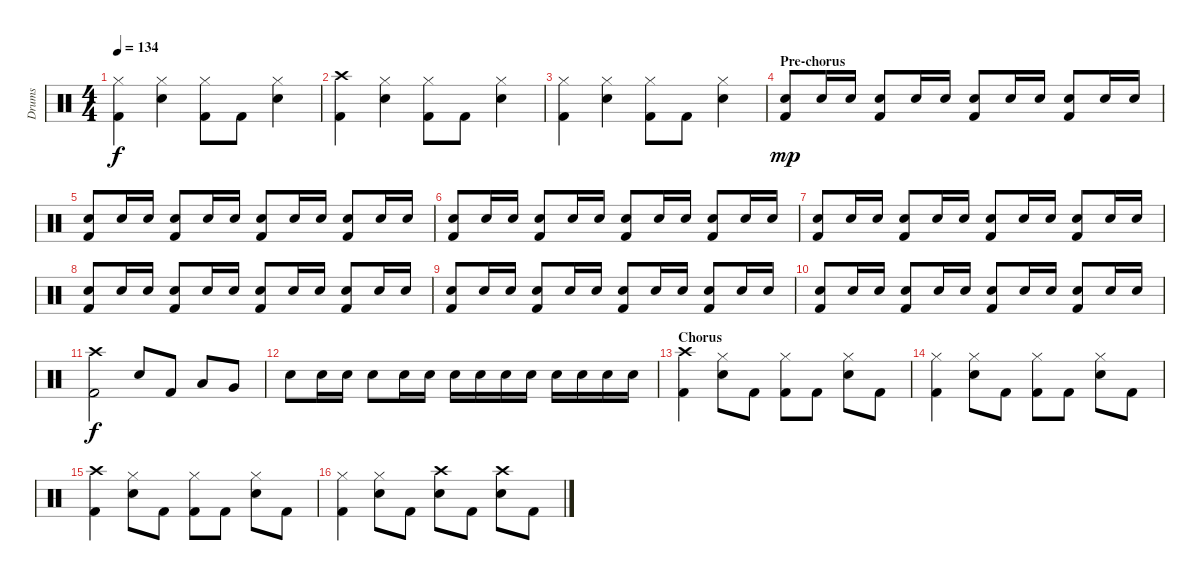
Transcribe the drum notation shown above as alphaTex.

\track ("Drums" "Drums") {instrument percussion}
\staff {score}
\articulation defaults
\ts (4 4)
\tempo 134
\clef neutral
\ks c
("Hi-Hat (closed)" "Kick (hit) 2").4{dy f} ("Hi-Hat (closed)" "Electric Snare (hit)").4 ("Hi-Hat (closed)" "Kick (hit) 2").8 "Kick (hit) 2".8 ("Hi-Hat (closed)" "Electric Snare (hit)").4 |
("Crash high (hit)" "Kick (hit) 2").4 ("Hi-Hat (closed)" "Electric Snare (hit)").4 ("Hi-Hat (closed)" "Kick (hit) 2").8 "Kick (hit) 2".8 ("Hi-Hat (closed)" "Electric Snare (hit)").4 |
("Hi-Hat (closed)" "Kick (hit) 2").4 ("Hi-Hat (closed)" "Electric Snare (hit)").4 ("Hi-Hat (closed)" "Kick (hit) 2").8 "Kick (hit) 2".8 ("Hi-Hat (closed)" "Electric Snare (hit)").4 |
\section ("" "Pre-chorus")
("Electric Snare (hit)" "Kick (hit) 2").8{dy mp} "Electric Snare (hit)".16 "Electric Snare (hit)".16 ("Electric Snare (hit)" "Kick (hit) 2").8 "Electric Snare (hit)".16 "Electric Snare (hit)".16 ("Electric Snare (hit)" "Kick (hit) 2").8 "Electric Snare (hit)".16 "Electric Snare (hit)".16 ("Electric Snare (hit)" "Kick (hit) 2").8 "Electric Snare (hit)".16 "Electric Snare (hit)".16 |
("Electric Snare (hit)" "Kick (hit) 2").8 "Electric Snare (hit)".16 "Electric Snare (hit)".16 ("Electric Snare (hit)" "Kick (hit) 2").8 "Electric Snare (hit)".16 "Electric Snare (hit)".16 ("Electric Snare (hit)" "Kick (hit) 2").8 "Electric Snare (hit)".16 "Electric Snare (hit)".16 ("Electric Snare (hit)" "Kick (hit) 2").8 "Electric Snare (hit)".16 "Electric Snare (hit)".16 |
("Electric Snare (hit)" "Kick (hit) 2").8 "Electric Snare (hit)".16 "Electric Snare (hit)".16 ("Electric Snare (hit)" "Kick (hit) 2").8 "Electric Snare (hit)".16 "Electric Snare (hit)".16 ("Electric Snare (hit)" "Kick (hit) 2").8 "Electric Snare (hit)".16 "Electric Snare (hit)".16 ("Electric Snare (hit)" "Kick (hit) 2").8 "Electric Snare (hit)".16 "Electric Snare (hit)".16 |
("Electric Snare (hit)" "Kick (hit) 2").8 "Electric Snare (hit)".16 "Electric Snare (hit)".16 ("Electric Snare (hit)" "Kick (hit) 2").8 "Electric Snare (hit)".16 "Electric Snare (hit)".16 ("Electric Snare (hit)" "Kick (hit) 2").8 "Electric Snare (hit)".16 "Electric Snare (hit)".16 ("Electric Snare (hit)" "Kick (hit) 2").8 "Electric Snare (hit)".16 "Electric Snare (hit)".16 |
("Electric Snare (hit)" "Kick (hit) 2").8 "Electric Snare (hit)".16 "Electric Snare (hit)".16 ("Electric Snare (hit)" "Kick (hit) 2").8 "Electric Snare (hit)".16 "Electric Snare (hit)".16 ("Electric Snare (hit)" "Kick (hit) 2").8 "Electric Snare (hit)".16 "Electric Snare (hit)".16 ("Electric Snare (hit)" "Kick (hit) 2").8 "Electric Snare (hit)".16 "Electric Snare (hit)".16 |
("Electric Snare (hit)" "Kick (hit) 2").8 "Electric Snare (hit)".16 "Electric Snare (hit)".16 ("Electric Snare (hit)" "Kick (hit) 2").8 "Electric Snare (hit)".16 "Electric Snare (hit)".16 ("Electric Snare (hit)" "Kick (hit) 2").8 "Electric Snare (hit)".16 "Electric Snare (hit)".16 ("Electric Snare (hit)" "Kick (hit) 2").8 "Electric Snare (hit)".16 "Electric Snare (hit)".16 |
("Electric Snare (hit)" "Kick (hit) 2").8 "Electric Snare (hit)".16 "Electric Snare (hit)".16 ("Electric Snare (hit)" "Kick (hit) 2").8 "Electric Snare (hit)".16 "Electric Snare (hit)".16 ("Electric Snare (hit)" "Kick (hit) 2").8 "Electric Snare (hit)".16 "Electric Snare (hit)".16 ("Electric Snare (hit)" "Kick (hit) 2").8 "Electric Snare (hit)".16 "Electric Snare (hit)".16 |
("Crash high (hit)" "Kick (hit) 2").2{dy f} "Electric Snare (hit)".8 "Kick (hit) 2".8 "Low Tom (hit)".8 "Very Low Tom (hit)".8 |
"Electric Snare (hit)".8 "Electric Snare (hit)".16 "Electric Snare (hit)".16 "Electric Snare (hit)".8 "Electric Snare (hit)".16 "Electric Snare (hit)".16 "Electric Snare (hit)".16 "Electric Snare (hit)".16 "Electric Snare (hit)".16 "Electric Snare (hit)".16 "Electric Snare (hit)".16 "Electric Snare (hit)".16 "Electric Snare (hit)".16 "Electric Snare (hit)".16 |
\section ("" "Chorus")
("Crash high (hit)" "Kick (hit) 2").4 ("Hi-Hat (closed)" "Electric Snare (hit)").8 "Kick (hit) 2".8 ("Hi-Hat (closed)" "Kick (hit) 2").8 "Kick (hit) 2".8 ("Hi-Hat (closed)" "Electric Snare (hit)").8 "Kick (hit) 2".8 |
("Hi-Hat (closed)" "Kick (hit) 2").4 ("Hi-Hat (closed)" "Electric Snare (hit)").8 "Kick (hit) 2".8 ("Hi-Hat (closed)" "Kick (hit) 2").8 "Kick (hit) 2".8 ("Hi-Hat (closed)" "Electric Snare (hit)").8 "Kick (hit) 2".8 |
("Crash high (hit)" "Kick (hit) 2").4 ("Hi-Hat (closed)" "Electric Snare (hit)").8 "Kick (hit) 2".8 ("Hi-Hat (closed)" "Kick (hit) 2").8 "Kick (hit) 2".8 ("Hi-Hat (closed)" "Electric Snare (hit)").8 "Kick (hit) 2".8 |
("Hi-Hat (closed)" "Kick (hit) 2").4 ("Hi-Hat (closed)" "Electric Snare (hit)").8 "Kick (hit) 2".8 ("Crash high (hit)" "Electric Snare (hit)").8 "Kick (hit) 2".8 ("Crash high (hit)" "Electric Snare (hit)").8 "Kick (hit) 2".8
